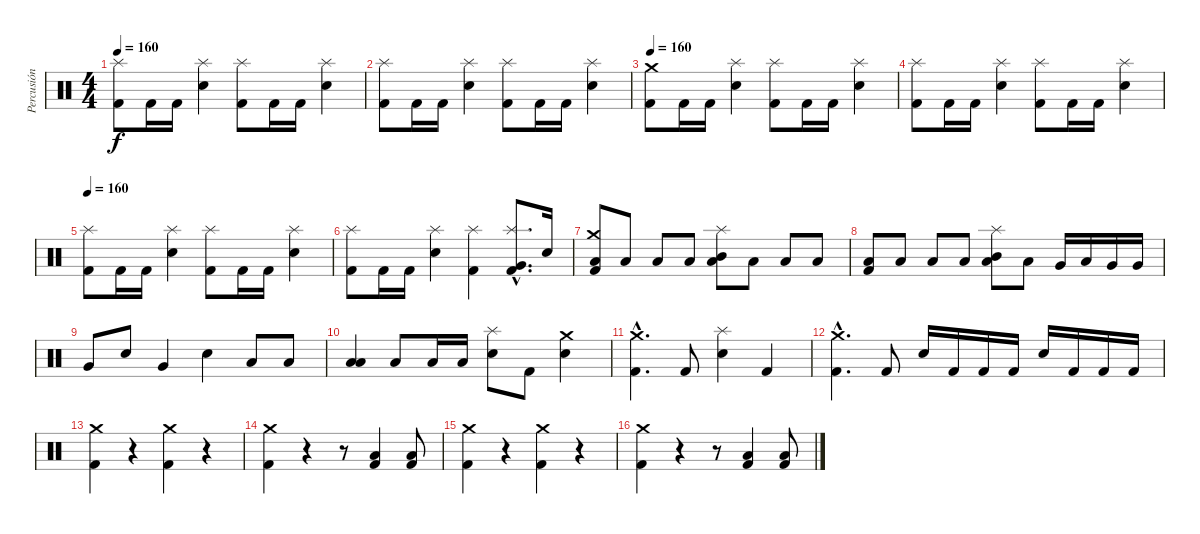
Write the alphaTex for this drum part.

\track ("Percusión" "Percusión") {instrument percussion}
\staff {score}
\articulation defaults
\ts (4 4)
\tempo 160
\clef neutral
\ks c
("Kick (hit) 2" "Splash (hit)").8{dy f} "Kick (hit) 2".16 "Kick (hit) 2".16 ("Electric Snare (hit)" "Splash (hit)").4 ("Kick (hit) 2" "Splash (hit)").8 "Kick (hit) 2".16 "Kick (hit) 2".16 ("Electric Snare (hit)" "Splash (hit)").4 |
("Kick (hit) 2" "Splash (hit)").8 "Kick (hit) 2".16 "Kick (hit) 2".16 ("Electric Snare (hit)" "Splash (hit)").4 ("Kick (hit) 2" "Splash (hit)").8 "Kick (hit) 2".16 "Kick (hit) 2".16 ("Electric Snare (hit)" "Splash (hit)").4 |
\tempo 160
("Kick (hit) 2" "Crash medium (hit)").8 "Kick (hit) 2".16 "Kick (hit) 2".16 ("Electric Snare (hit)" "Splash (hit)").4 ("Kick (hit) 2" "Splash (hit)").8 "Kick (hit) 2".16 "Kick (hit) 2".16 ("Electric Snare (hit)" "Splash (hit)").4 |
("Kick (hit) 2" "Splash (hit)").8 "Kick (hit) 2".16 "Kick (hit) 2".16 ("Electric Snare (hit)" "Splash (hit)").4 ("Kick (hit) 2" "Splash (hit)").8 "Kick (hit) 2".16 "Kick (hit) 2".16 ("Electric Snare (hit)" "Splash (hit)").4 |
\tempo 160
("Kick (hit) 2" "Splash (hit)").8 "Kick (hit) 2".16 "Kick (hit) 2".16 ("Electric Snare (hit)" "Splash (hit)").4 ("Kick (hit) 2" "Splash (hit)").8 "Kick (hit) 2".16 "Kick (hit) 2".16 ("Electric Snare (hit)" "Splash (hit)").4 |
("Kick (hit) 2" "Splash (hit)").8 "Kick (hit) 2".16 "Kick (hit) 2".16 ("Electric Snare (hit)" "Splash (hit)").4 ("Kick (hit) 2" "Splash (hit)").4 ("Very Low Tom (hit)"{hac} "Kick (hit) 2"{hac} "Splash (hit)"{hac}).8{d} "Electric Snare (hit)".16 |
("Crash medium (hit)" "Low Floor Tom (hit)" "Kick (hit) 2").8 "Low Floor Tom (hit)".8 "Low Floor Tom (hit)".8 "Low Floor Tom (hit)".8 ("Mid Tom (hit)" "Splash (hit)" "Low Tom (hit)").8 "Low Floor Tom (hit)".8 "Low Floor Tom (hit)".8 "Low Floor Tom (hit)".8 |
("Kick (hit) 2" "Low Floor Tom (hit)").8 "Low Floor Tom (hit)".8 "Low Floor Tom (hit)".8 "Low Floor Tom (hit)".8 ("Mid Tom (hit)" "Splash (hit)" "Low Tom (hit)").8 "Low Floor Tom (hit)".8 "Very Low Tom (hit)".16 "Low Tom (hit)".16 "Very Low Tom (hit)".16 "Very Low Tom (hit)".16 |
"Very Low Tom (hit)".8 "Electric Snare (hit)".8 "Very Low Tom (hit)".4 "Electric Snare (hit)".4 "Low Floor Tom (hit)".8 "Low Floor Tom (hit)".8 |
("Low Floor Tom (hit)" "Low Tom (hit)").4 "Low Floor Tom (hit)".8 "Low Tom (hit)".16 "Low Tom (hit)".16 ("Splash (hit)" "Electric Snare (hit)").8 "Kick (hit) 2".8 ("Electric Snare (hit)" "Crash medium (hit)").4 |
("Crash medium (hit)"{hac} "Kick (hit) 2"{hac}).4{d} "Kick (hit) 2".8 ("Splash (hit)" "Electric Snare (hit)").4 "Kick (hit) 2".4 |
("Crash medium (hit)"{hac} "Kick (hit) 2"{hac}).4{d} "Kick (hit) 2".8 "Electric Snare (hit)".16 "Kick (hit) 2".16 "Kick (hit) 2".16 "Kick (hit) 2".16 "Electric Snare (hit)".16 "Kick (hit) 2".16 "Kick (hit) 2".16 "Kick (hit) 2".16 |
("Crash medium (hit)" "Kick (hit) 2").4 r.4 ("Crash medium (hit)" "Kick (hit) 2").4 r.4 |
("Crash medium (hit)" "Kick (hit) 2").4 r.4 r.8 ("Low Floor Tom (hit)" "Kick (hit) 2").4 ("Low Floor Tom (hit)" "Kick (hit) 2").8 |
("Crash medium (hit)" "Kick (hit) 2").4 r.4 ("Crash medium (hit)" "Kick (hit) 2").4 r.4 |
("Crash medium (hit)" "Kick (hit) 2").4 r.4 r.8 ("Low Floor Tom (hit)" "Kick (hit) 2").4 ("Low Floor Tom (hit)" "Kick (hit) 2").8
